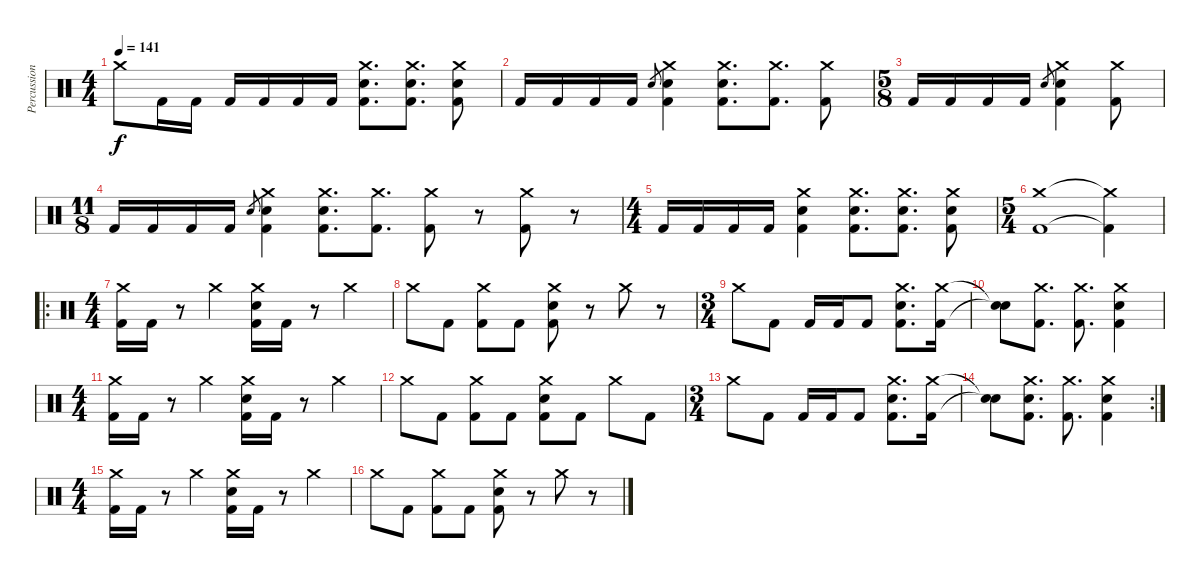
\track ("Percussion" "Percussion") {instrument percussion}
\staff {score}
\articulation defaults
\ts (4 4)
\tempo 141
\clef neutral
\ks c "Crash medium (hit)".8{dy f} "Kick (hit) 2".16 "Kick (hit) 2".16 "Kick (hit) 2".16 "Kick (hit) 2".16 "Kick (hit) 2".16 "Kick (hit) 2".16
("Crash medium (hit)" "Electric Snare (hit)" "Kick (hit) 2").8{d} ("Crash medium (hit)" "Electric Snare (hit)" "Kick (hit) 2").8{d} ("Crash medium (hit)" "Electric Snare (hit)" "Kick (hit) 2").8 |
"Kick (hit) 2".16 "Kick (hit) 2".16 "Kick (hit) 2".16 "Kick (hit) 2".16 "Electric Snare (hit)".8{gr} ("Crash medium (hit)" "Electric Snare (hit)" "Kick (hit) 2").4 ("Crash medium (hit)" "Electric Snare (hit)" "Kick (hit) 2").8{d} ("Crash medium (hit)" "Kick (hit) 2").8{d} ("Crash medium (hit)" "Kick (hit) 2").8 |
\ts (5 8)
"Kick (hit) 2".16 "Kick (hit) 2".16 "Kick (hit) 2".16 "Kick (hit) 2".16 "Electric Snare (hit)".8{gr} ("Crash medium (hit)" "Electric Snare (hit)" "Kick (hit) 2").4 ("Crash medium (hit)" "Kick (hit) 2").8 |
\ts (11 8)
"Kick (hit) 2".16 "Kick (hit) 2".16 "Kick (hit) 2".16 "Kick (hit) 2".16 "Electric Snare (hit)".8{gr} ("Crash medium (hit)" "Electric Snare (hit)" "Kick (hit) 2").4 ("Crash medium (hit)" "Electric Snare (hit)" "Kick (hit) 2").8{d} ("Crash medium (hit)" "Kick (hit) 2").8{d} ("Crash medium (hit)" "Kick (hit) 2").8 r.8 ("Crash medium (hit)" "Kick (hit) 2").8 r.8 |
\ts (4 4)
"Kick (hit) 2".16 "Kick (hit) 2".16 "Kick (hit) 2".16 "Kick (hit) 2".16 ("Crash medium (hit)" "Electric Snare (hit)" "Kick (hit) 2").4 ("Crash medium (hit)" "Electric Snare (hit)" "Kick (hit) 2").8{d} ("Crash medium (hit)" "Electric Snare (hit)" "Kick (hit) 2").8{d} ("Crash medium (hit)" "Electric Snare (hit)" "Kick (hit) 2").8 |
\ts (5 4)
("Crash medium (hit)" "Kick (hit) 2").1 ("Crash medium (hit)"{t} "Kick (hit) 2"{t}).4 |
\ro
\ts (4 4)
("Crash medium (hit)" "Kick (hit) 2").16 "Kick (hit) 2".16 r.8 "Crash medium (hit)".4 ("Crash medium (hit)" "Electric Snare (hit)" "Kick (hit) 2").16 "Kick (hit) 2".16 r.8 "Crash medium (hit)".4 |
"Crash medium (hit)".8 "Kick (hit) 2".8 ("Crash medium (hit)" "Kick (hit) 2").8 "Kick (hit) 2".8 ("Crash medium (hit)" "Electric Snare (hit)" "Kick (hit) 2").8 r.8 "Crash medium (hit)".8 r.8 |
\ts (3 4)
"Crash medium (hit)".8 "Kick (hit) 2".8 "Kick (hit) 2".16 "Kick (hit) 2".16 "Kick (hit) 2".8 ("Crash medium (hit)" "Electric Snare (hit)" "Kick (hit) 2").8{d} ("Crash medium (hit)" "Kick (hit) 2").16 |
("Snare (hit)"{t} "Snare (hit)"{t}).8 ("Crash medium (hit)" "Kick (hit) 2").8{d} ("Crash medium (hit)" "Kick (hit) 2").8{d} ("Crash medium (hit)" "Electric Snare (hit)" "Kick (hit) 2").4 |
\ts (4 4)
("Crash medium (hit)" "Kick (hit) 2").16 "Kick (hit) 2".16 r.8 "Crash medium (hit)".4 ("Crash medium (hit)" "Electric Snare (hit)" "Kick (hit) 2").16 "Kick (hit) 2".16 r.8 "Crash medium (hit)".4 |
"Crash medium (hit)".8 "Kick (hit) 2".8 ("Crash medium (hit)" "Kick (hit) 2").8 "Kick (hit) 2".8 ("Crash medium (hit)" "Electric Snare (hit)" "Kick (hit) 2").8 "Kick (hit) 2".8 "Crash medium (hit)".8 "Kick (hit) 2".8 |
\ts (3 4)
"Crash medium (hit)".8 "Kick (hit) 2".8 "Kick (hit) 2".16 "Kick (hit) 2".16 "Kick (hit) 2".8 ("Crash medium (hit)" "Electric Snare (hit)" "Kick (hit) 2").8{d} ("Crash medium (hit)" "Kick (hit) 2").16 |
\rc 2
("Snare (hit)"{t} "Snare (hit)"{t}).8 ("Crash medium (hit)" "Electric Snare (hit)" "Kick (hit) 2").8{d} ("Crash medium (hit)" "Kick (hit) 2").8{d} ("Crash medium (hit)" "Electric Snare (hit)" "Kick (hit) 2").4 |
\ts (4 4)
("Crash medium (hit)" "Kick (hit) 2").16 "Kick (hit) 2".16 r.8 "Crash medium (hit)".4 ("Crash medium (hit)" "Electric Snare (hit)" "Kick (hit) 2").16 "Kick (hit) 2".16 r.8 "Crash medium (hit)".4 |
"Crash medium (hit)".8 "Kick (hit) 2".8 ("Crash medium (hit)" "Kick (hit) 2").8 "Kick (hit) 2".8 ("Crash medium (hit)" "Electric Snare (hit)" "Kick (hit) 2").8 r.8 "Crash medium (hit)".8 r.8
